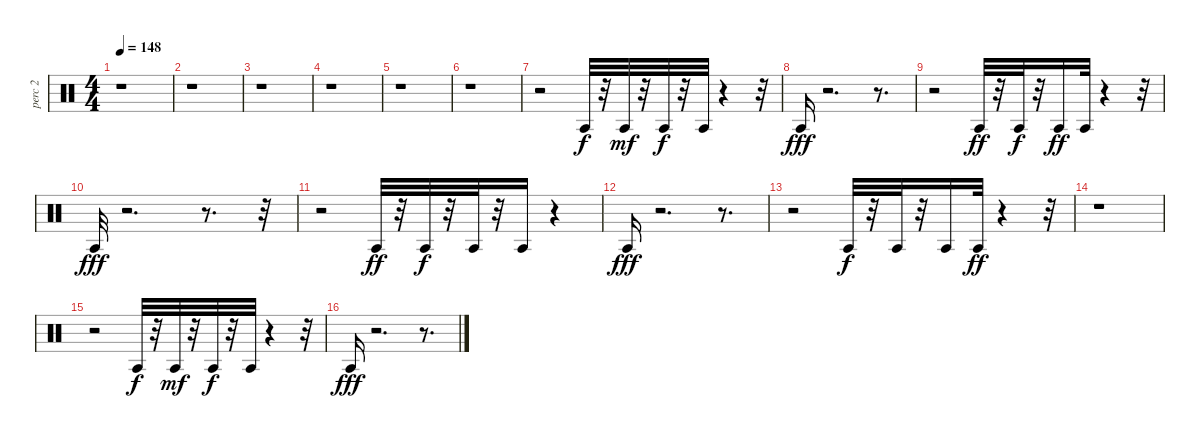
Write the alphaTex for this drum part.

\track ("perc 2              " "perc 2    ") {instrument percussion}
\staff {score}
\articulation defaults
\ts (4 4)
\tempo 148
\clef neutral
\ks c
r.1{dy ff} |
r.1 |
r.1 |
r.1 |
r.1 |
r.1 |
r.2 "Agogo tow (hit)".32{dy f} r.32 "Agogo tow (hit)".32{dy mf} r.32 "Agogo tow (hit)".32{dy f} r.32 "Agogo tow (hit)".32 r.4 r.32 |
"Agogo tow (hit)".16{dy fff} r.2{d} r.8{d} |
r.2 "Agogo tow (hit)".32{dy ff} r.32 "Agogo tow (hit)".32{dy f} r.32 "Agogo tow (hit)".16{dy ff} "Agogo tow (hit)".32 r.4 r.32 |
"Agogo tow (hit)".32{dy fff} r.2{d} r.8{d} r.32 |
r.2 "Agogo tow (hit)".32{dy ff} r.32 "Agogo tow (hit)".32{dy f} r.32 "Agogo tow (hit)".32 r.32 "Agogo tow (hit)".16 r.4 |
"Agogo tow (hit)".16{dy fff} r.2{d} r.8{d} |
r.2 "Agogo tow (hit)".32{dy f} r.32 "Agogo tow (hit)".32 r.32 "Agogo tow (hit)".16 "Agogo tow (hit)".32{dy ff} r.4 r.32 |
r.1 |
r.2 "Agogo tow (hit)".32{dy f} r.32 "Agogo tow (hit)".32{dy mf} r.32 "Agogo tow (hit)".32{dy f} r.32 "Agogo tow (hit)".32 r.4 r.32 |
"Agogo tow (hit)".16{dy fff} r.2{d} r.8{d}
